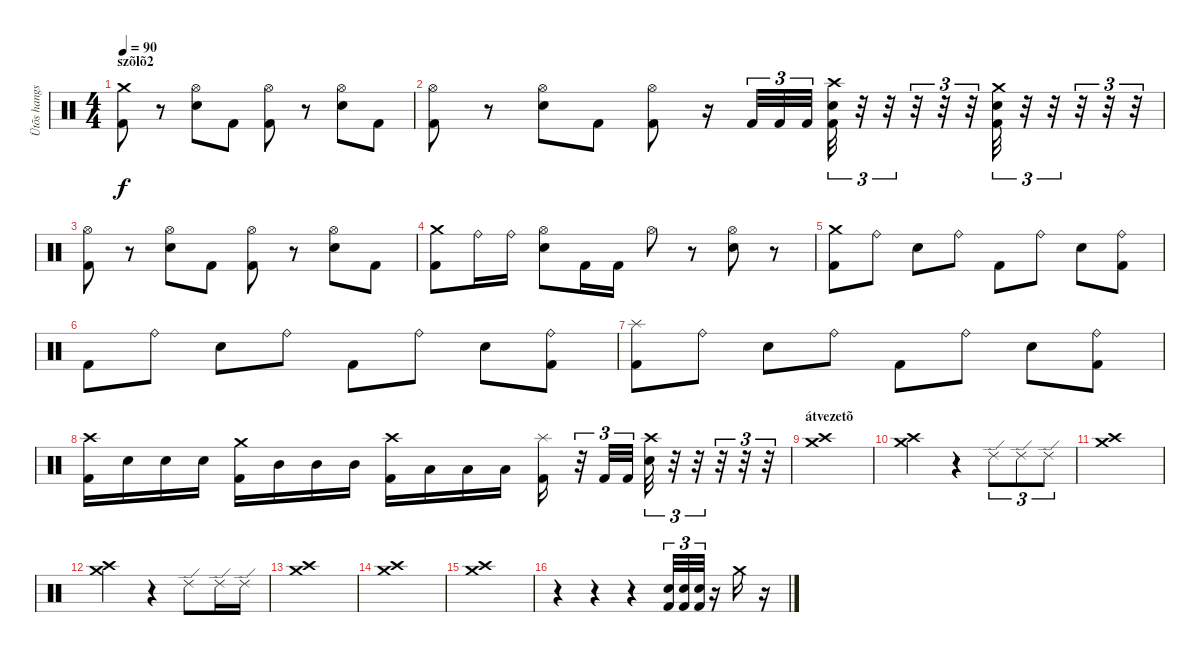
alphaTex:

\track ("Ütõs hangszer" "Ütõs hangs") {instrument percussion}
\staff {score}
\articulation defaults
\ts (4 4)
\section ("" "szõlõ2")
\tempo 90
\clef neutral
\ks c
("Crash medium (hit)" "Kick (hit) 2").8{dy f} r.8 ("Hi-Hat (open)" "Electric Snare (hit)").8 "Kick (hit) 2".8 ("Hi-Hat (open)" "Kick (hit) 2").8 r.8 ("Hi-Hat (open)" "Electric Snare (hit)").8 "Kick (hit) 2".8 |
("Hi-Hat (open)" "Kick (hit) 2").8 r.8 ("Hi-Hat (open)" "Electric Snare (hit)").8 "Kick (hit) 2".8 ("Hi-Hat (open)" "Kick (hit) 2").8 r.16 "Kick (hit) 2".32{tu (3 2)} "Kick (hit) 2".32{tu (3 2)} "Kick (hit) 2".32{tu (3 2)} ("Crash high (hit)" "Electric Snare (hit)" "Kick (hit) 2").32{tu (3 2)} r.32{tu (3 2)} r.32{tu (3 2)} r.32{tu (3 2)} r.32{tu (3 2)} r.32{tu (3 2)} ("Crash medium (hit)" "Electric Snare (hit)" "Kick (hit) 2").32{tu (3 2)} r.32{tu (3 2)} r.32{tu (3 2)} r.32{tu (3 2)} r.32{tu (3 2)} r.32{tu (3 2)} |
("Hi-Hat (open)" "Kick (hit) 2").8 r.8 ("Hi-Hat (open)" "Electric Snare (hit)").8 "Kick (hit) 2".8 ("Hi-Hat (open)" "Kick (hit) 2").8 r.8 ("Hi-Hat (open)" "Electric Snare (hit)").8 "Kick (hit) 2".8 |
("Crash medium (hit)" "Kick (hit) 2").8 "Ride (bell)".16 "Ride (bell)".16 ("Hi-Hat (open)" "Electric Snare (hit)").8 "Kick (hit) 2".16 "Kick (hit) 2".16 "Hi-Hat (open)".8 r.8 ("Hi-Hat (open)" "Electric Snare (hit)").8 r.8 |
("Crash medium (hit)" "Kick (hit) 2").8 "Ride (bell)".8 "Electric Snare (hit)".8 "Ride (bell)".8 "Kick (hit) 2".8 "Ride (bell)".8 "Electric Snare (hit)".8 ("Ride (bell)" "Kick (hit) 2").8 |
"Kick (hit) 2".8 "Ride (bell)".8 "Electric Snare (hit)".8 "Ride (bell)".8 "Kick (hit) 2".8 "Ride (bell)".8 "Electric Snare (hit)".8 ("Ride (bell)" "Kick (hit) 2").8 |
("Splash (hit)" "Kick (hit) 2").8 "Ride (bell)".8 "Electric Snare (hit)".8 "Ride (bell)".8 "Kick (hit) 2".8 "Ride (bell)".8 "Electric Snare (hit)".8 ("Ride (bell)" "Kick (hit) 2").8 |
("Crash high (hit)" "Kick (hit) 2").16 "Electric Snare (hit)".16 "Electric Snare (hit)".16 "Electric Snare (hit)".16 ("Crash medium (hit)" "Kick (hit) 2").16 "Mid Tom (hit)".16 "Mid Tom (hit)".16 "Mid Tom (hit)".16 ("Crash high (hit)" "Kick (hit) 2").16 "Low Tom (hit)".16 "Low Tom (hit)".16 "Low Tom (hit)".16 ("Splash (hit)" "Kick (hit) 2").16 r.32{tu (3 2)} "Kick (hit) 2".32{tu (3 2)} "Kick (hit) 2".32{tu (3 2)} ("Crash high (hit)" "Electric Snare (hit)").32{tu (3 2)} r.32{tu (3 2)} r.32{tu (3 2)} r.32{tu (3 2)} r.32{tu (3 2)} r.32{tu (3 2)} |
\section ("" "átvezetõ")
("Crash medium (hit)" "Crash high (hit)").1 |
("Crash medium (hit)" "Crash high (hit)").2 r.4 "Ride (edge) 2".8{tu (3 2)} "Ride (edge) 2".8{tu (3 2)} "Ride (edge) 2".8{tu (3 2)} |
("Crash medium (hit)" "Crash high (hit)").1 |
("Crash medium (hit)" "Crash high (hit)").2 r.4 "Ride (edge) 2".8 "Ride (edge) 2".16 "Ride (edge) 2".16 |
("Crash medium (hit)" "Crash high (hit)").1 |
("Crash medium (hit)" "Crash high (hit)").1 |
("Crash medium (hit)" "Crash high (hit)").1 |
r.4 r.4 r.4 ("Electric Snare (hit)" "Kick (hit) 2").32{tu (3 2)} ("Electric Snare (hit)" "Kick (hit) 2").32{tu (3 2)} ("Electric Snare (hit)" "Kick (hit) 2").32{tu (3 2)} r.16 "Crash medium (hit)".16 r.16
